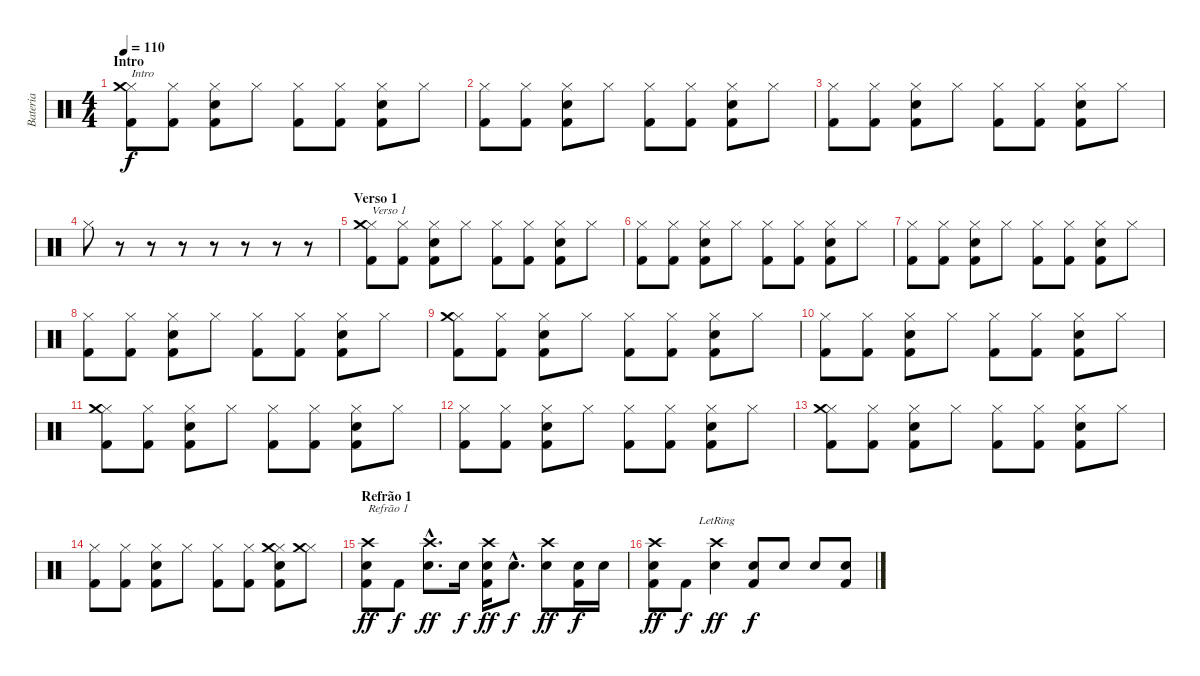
\track ("Bateria" "Bateria") {instrument percussion}
\staff {score}
\articulation defaults
\ts (4 4)
\section ("" "Intro")
\tempo 110
\clef neutral
\ks c
("Hi-Hat (closed)" "Kick (hit) 2" "Crash medium (hit)").8{txt "Intro" dy f} ("Hi-Hat (closed)" "Kick (hit) 2").8 ("Hi-Hat (closed)" "Kick (hit) 2" "Metronome (bell)").8 "Hi-Hat (closed)".8 ("Hi-Hat (closed)" "Kick (hit) 2").8 ("Hi-Hat (closed)" "Kick (hit) 2").8 ("Hi-Hat (closed)" "Kick (hit) 2" "Metronome (bell)").8 "Hi-Hat (closed)".8 |
("Hi-Hat (closed)" "Kick (hit) 2").8 ("Hi-Hat (closed)" "Kick (hit) 2").8 ("Hi-Hat (closed)" "Kick (hit) 2" "Metronome (bell)").8 "Hi-Hat (closed)".8 ("Hi-Hat (closed)" "Kick (hit) 2").8 ("Hi-Hat (closed)" "Kick (hit) 2").8 ("Hi-Hat (closed)" "Kick (hit) 2" "Metronome (bell)").8 "Hi-Hat (closed)".8 |
("Hi-Hat (closed)" "Kick (hit) 2").8 ("Hi-Hat (closed)" "Kick (hit) 2").8 ("Hi-Hat (closed)" "Kick (hit) 2" "Metronome (bell)").8 "Hi-Hat (closed)".8 ("Hi-Hat (closed)" "Kick (hit) 2").8 ("Hi-Hat (closed)" "Kick (hit) 2").8 ("Hi-Hat (closed)" "Kick (hit) 2" "Metronome (bell)").8 "Hi-Hat (closed)".8 |
"Hi-Hat (closed)".8 r.8 r.8 r.8 r.8 r.8 r.8 r.8 |
\section ("" "Verso 1")
("Hi-Hat (closed)" "Kick (hit) 2" "Crash medium (hit)").8{txt "Verso 1"} ("Hi-Hat (closed)" "Kick (hit) 2").8 ("Hi-Hat (closed)" "Kick (hit) 2" "Metronome (bell)").8 "Hi-Hat (closed)".8 ("Hi-Hat (closed)" "Kick (hit) 2").8 ("Hi-Hat (closed)" "Kick (hit) 2").8 ("Hi-Hat (closed)" "Kick (hit) 2" "Metronome (bell)").8 "Hi-Hat (closed)".8 |
("Hi-Hat (closed)" "Kick (hit) 2").8 ("Hi-Hat (closed)" "Kick (hit) 2").8 ("Hi-Hat (closed)" "Kick (hit) 2" "Metronome (bell)").8 "Hi-Hat (closed)".8 ("Hi-Hat (closed)" "Kick (hit) 2").8 ("Hi-Hat (closed)" "Kick (hit) 2").8 ("Hi-Hat (closed)" "Kick (hit) 2" "Metronome (bell)").8 "Hi-Hat (closed)".8 |
("Hi-Hat (closed)" "Kick (hit) 2").8 ("Hi-Hat (closed)" "Kick (hit) 2").8 ("Hi-Hat (closed)" "Kick (hit) 2" "Metronome (bell)").8 "Hi-Hat (closed)".8 ("Hi-Hat (closed)" "Kick (hit) 2").8 ("Hi-Hat (closed)" "Kick (hit) 2").8 ("Hi-Hat (closed)" "Kick (hit) 2" "Metronome (bell)").8 "Hi-Hat (closed)".8 |
("Hi-Hat (closed)" "Kick (hit) 2").8 ("Hi-Hat (closed)" "Kick (hit) 2").8 ("Hi-Hat (closed)" "Kick (hit) 2" "Metronome (bell)").8 "Hi-Hat (closed)".8 ("Hi-Hat (closed)" "Kick (hit) 2").8 ("Hi-Hat (closed)" "Kick (hit) 2").8 ("Hi-Hat (closed)" "Kick (hit) 2" "Metronome (bell)").8 "Hi-Hat (closed)".8 |
("Hi-Hat (closed)" "Kick (hit) 2" "Crash medium (hit)").8 ("Hi-Hat (closed)" "Kick (hit) 2").8 ("Hi-Hat (closed)" "Kick (hit) 2" "Metronome (bell)").8 "Hi-Hat (closed)".8 ("Hi-Hat (closed)" "Kick (hit) 2").8 ("Hi-Hat (closed)" "Kick (hit) 2").8 ("Hi-Hat (closed)" "Kick (hit) 2" "Metronome (bell)").8 "Hi-Hat (closed)".8 |
("Hi-Hat (closed)" "Kick (hit) 2").8 ("Hi-Hat (closed)" "Kick (hit) 2").8 ("Hi-Hat (closed)" "Kick (hit) 2" "Metronome (bell)").8 "Hi-Hat (closed)".8 ("Hi-Hat (closed)" "Kick (hit) 2").8 ("Hi-Hat (closed)" "Kick (hit) 2").8 ("Hi-Hat (closed)" "Kick (hit) 2" "Metronome (bell)").8 "Hi-Hat (closed)".8 |
("Hi-Hat (closed)" "Kick (hit) 2" "Crash medium (hit)").8 ("Hi-Hat (closed)" "Kick (hit) 2").8 ("Hi-Hat (closed)" "Kick (hit) 2" "Metronome (bell)").8 "Hi-Hat (closed)".8 ("Hi-Hat (closed)" "Kick (hit) 2").8 ("Hi-Hat (closed)" "Kick (hit) 2").8 ("Hi-Hat (closed)" "Kick (hit) 2" "Metronome (bell)").8 "Hi-Hat (closed)".8 |
("Hi-Hat (closed)" "Kick (hit) 2").8 ("Hi-Hat (closed)" "Kick (hit) 2").8 ("Hi-Hat (closed)" "Kick (hit) 2" "Metronome (bell)").8 "Hi-Hat (closed)".8 ("Hi-Hat (closed)" "Kick (hit) 2").8 ("Hi-Hat (closed)" "Kick (hit) 2").8 ("Hi-Hat (closed)" "Kick (hit) 2" "Metronome (bell)").8 "Hi-Hat (closed)".8 |
("Hi-Hat (closed)" "Kick (hit) 2" "Crash medium (hit)").8 ("Hi-Hat (closed)" "Kick (hit) 2").8 ("Hi-Hat (closed)" "Kick (hit) 2" "Metronome (bell)").8 "Hi-Hat (closed)".8 ("Hi-Hat (closed)" "Kick (hit) 2").8 ("Hi-Hat (closed)" "Kick (hit) 2").8 ("Hi-Hat (closed)" "Kick (hit) 2" "Metronome (bell)").8 "Hi-Hat (closed)".8 |
("Hi-Hat (closed)" "Kick (hit) 2").8 ("Hi-Hat (closed)" "Kick (hit) 2").8 ("Hi-Hat (closed)" "Kick (hit) 2" "Metronome (bell)").8 "Hi-Hat (closed)".8 ("Hi-Hat (closed)" "Kick (hit) 2").8 ("Hi-Hat (closed)" "Kick (hit) 2").8 ("Hi-Hat (closed)" "Kick (hit) 2" "Metronome (bell)" "Crash medium (hit)").8 ("Hi-Hat (closed)" "Crash medium (hit)").8 |
\section ("" "Refrão 1")
("Kick (hit) 2" "Electric Snare (hit)" "Crash high (hit)").8{txt "Refrão 1" dy ff} "Kick (hit) 2".8{dy f} ("Electric Snare (hit)"{hac} "Crash high (hit)"{hac}).8{d dy ff} "Metronome (bell)".16{dy f} ("Kick (hit) 2" "Electric Snare (hit)" "Crash high (hit)").16{dy ff} "Metronome (bell)"{hac}.8{d dy f} ("Metronome (bell)" "Crash high (hit)").8{dy ff} ("Kick (hit) 2" "Metronome (bell)").16{dy f} "Electric Snare (hit)".16 |
("Kick (hit) 2" "Metronome (bell)" "Crash high (hit)").8{dy ff} "Kick (hit) 2".8{dy f} ("Electric Snare (hit)" "Crash high (hit)"{lr}).4{dy ff} ("Kick (hit) 2" "Metronome (bell)").8{dy f} "Metronome (bell)".8 "Metronome (bell)".8 ("Kick (hit) 2" "Metronome (bell)").8
